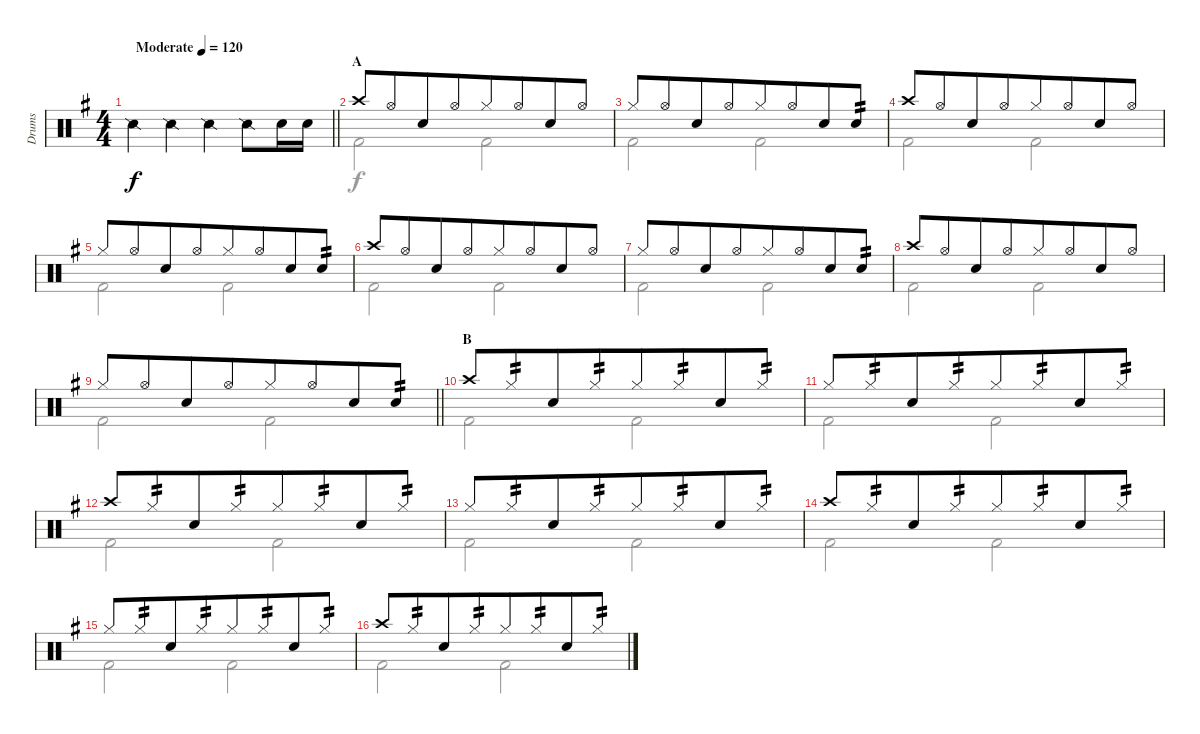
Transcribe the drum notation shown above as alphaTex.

\track ("Drums" "Drums") {instrument percussion}
\staff {score}
\articulation defaults
\voice
\ts (4 4)
\tempo (120 "Moderate")
\clef neutral
\barLineRight lightlight
\ks g "Snare (side stick) 2".4{dy f} "Snare (side stick) 2".4 "Snare (side stick) 2".4 "Snare (side stick) 2".8 "Electric Snare (hit)".16 "Electric Snare (hit)".16
|
\section ("" "A")
"Crash high (hit)".8 "Hi-Hat (open)".8{beam merge} "Electric Snare (hit)".8 "Hi-Hat (open)".8{beam merge} "Hi-Hat (closed)".8 "Hi-Hat (open)".8{beam merge} "Electric Snare (hit)".8 "Hi-Hat (open)".8 |
"Hi-Hat (closed)".8 "Hi-Hat (open)".8{beam merge} "Electric Snare (hit)".8 "Hi-Hat (open)".8{beam merge} "Hi-Hat (closed)".8 "Hi-Hat (open)".8{beam merge} "Electric Snare (hit)".8 "Electric Snare (hit)".8{tp 2} |
"Crash high (hit)".8 "Hi-Hat (open)".8{beam merge} "Electric Snare (hit)".8 "Hi-Hat (open)".8{beam merge} "Hi-Hat (closed)".8 "Hi-Hat (open)".8{beam merge} "Electric Snare (hit)".8 "Hi-Hat (open)".8 |
"Hi-Hat (closed)".8 "Hi-Hat (open)".8{beam merge} "Electric Snare (hit)".8 "Hi-Hat (open)".8{beam merge} "Hi-Hat (closed)".8 "Hi-Hat (open)".8{beam merge} "Electric Snare (hit)".8 "Electric Snare (hit)".8{tp 2} |
"Crash high (hit)".8 "Hi-Hat (open)".8{beam merge} "Electric Snare (hit)".8 "Hi-Hat (open)".8{beam merge} "Hi-Hat (closed)".8 "Hi-Hat (open)".8{beam merge} "Electric Snare (hit)".8 "Hi-Hat (open)".8 |
"Hi-Hat (closed)".8 "Hi-Hat (open)".8{beam merge} "Electric Snare (hit)".8 "Hi-Hat (open)".8{beam merge} "Hi-Hat (closed)".8 "Hi-Hat (open)".8{beam merge} "Electric Snare (hit)".8 "Electric Snare (hit)".8{tp 2} |
"Crash high (hit)".8 "Hi-Hat (open)".8{beam merge} "Electric Snare (hit)".8 "Hi-Hat (open)".8{beam merge} "Hi-Hat (closed)".8 "Hi-Hat (open)".8{beam merge} "Electric Snare (hit)".8 "Hi-Hat (open)".8 |
\barLineRight lightlight "Hi-Hat (closed)".8 "Hi-Hat (open)".8{beam merge} "Electric Snare (hit)".8 "Hi-Hat (open)".8{beam merge} "Hi-Hat (closed)".8 "Hi-Hat (open)".8{beam merge} "Snare (hit) 2".8 "Electric Snare (hit)".8{tp 2}
|
\section ("" "B")
"Crash high (hit)".8 "Hi-Hat (closed)".8{tp 2 beam merge} "Snare (hit) 2".8 "Hi-Hat (closed)".8{tp 2 beam merge} "Hi-Hat (closed)".8 "Hi-Hat (closed)".8{tp 2 beam merge} "Snare (hit) 2".8 "Hi-Hat (closed)".8{tp 2} |
"Hi-Hat (closed)".8 "Hi-Hat (closed)".8{tp 2 beam merge} "Snare (hit) 2".8 "Hi-Hat (closed)".8{tp 2 beam merge} "Hi-Hat (closed)".8 "Hi-Hat (closed)".8{tp 2 beam merge} "Snare (hit) 2".8 "Hi-Hat (closed)".8{tp 2} |
"Crash high (hit)".8 "Hi-Hat (closed)".8{tp 2 beam merge} "Snare (hit) 2".8 "Hi-Hat (closed)".8{tp 2 beam merge} "Hi-Hat (closed)".8 "Hi-Hat (closed)".8{tp 2 beam merge} "Snare (hit) 2".8 "Hi-Hat (closed)".8{tp 2} |
"Hi-Hat (closed)".8 "Hi-Hat (closed)".8{tp 2 beam merge} "Snare (hit) 2".8 "Hi-Hat (closed)".8{tp 2 beam merge} "Hi-Hat (closed)".8 "Hi-Hat (closed)".8{tp 2 beam merge} "Snare (hit) 2".8 "Hi-Hat (closed)".8{tp 2} |
"Crash high (hit)".8 "Hi-Hat (closed)".8{tp 2 beam merge} "Snare (hit) 2".8 "Hi-Hat (closed)".8{tp 2 beam merge} "Hi-Hat (closed)".8 "Hi-Hat (closed)".8{tp 2 beam merge} "Snare (hit) 2".8 "Hi-Hat (closed)".8{tp 2} |
"Hi-Hat (closed)".8 "Hi-Hat (closed)".8{tp 2 beam merge} "Snare (hit) 2".8 "Hi-Hat (closed)".8{tp 2 beam merge} "Hi-Hat (closed)".8 "Hi-Hat (closed)".8{tp 2 beam merge} "Snare (hit) 2".8 "Hi-Hat (closed)".8{tp 2} |
"Crash high (hit)".8 "Hi-Hat (closed)".8{tp 2 beam merge} "Snare (hit) 2".8 "Hi-Hat (closed)".8{tp 2 beam merge} "Hi-Hat (closed)".8 "Hi-Hat (closed)".8{tp 2 beam merge} "Snare (hit) 2".8 "Hi-Hat (closed)".8{tp 2}
\voice
\clef neutral
\ottava regular
\simile none
\barLineRight lightlight
\ks g
|
"Kick (hit) 2".2 "Kick (hit) 2".2 |
"Kick (hit) 2".2 "Kick (hit) 2".2 |
"Kick (hit) 2".2 "Kick (hit) 2".2 |
"Kick (hit) 2".2 "Kick (hit) 2".2 |
"Kick (hit) 2".2 "Kick (hit) 2".2 |
"Kick (hit) 2".2 "Kick (hit) 2".2 |
"Kick (hit) 2".2 "Kick (hit) 2".2 |
\barLineRight lightlight "Kick (hit) 2".2 "Kick (hit) 2".2
|
"Kick (hit) 2".2 "Kick (hit) 2".2 |
"Kick (hit) 2".2 "Kick (hit) 2".2 |
"Kick (hit) 2".2 "Kick (hit) 2".2 |
"Kick (hit) 2".2 "Kick (hit) 2".2 |
"Kick (hit) 2".2 "Kick (hit) 2".2 |
"Kick (hit) 2".2 "Kick (hit) 2".2 |
"Kick (hit) 2".2 "Kick (hit) 2".2
